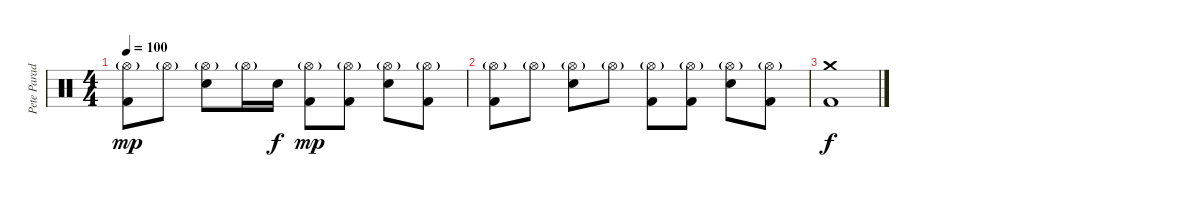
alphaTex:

\track ("Pete Parada - Drums" "Pete Parad") {instrument percussion}
\staff {score}
\articulation defaults
\ts (4 4)
\tempo 100
\clef neutral
\ks c
("Hi-Hat (open)"{g} "Kick (hit) 2").8{dy mp} "Hi-Hat (open)"{g}.8 ("Hi-Hat (open)"{g} "Electric Snare (hit)").8 "Hi-Hat (open)"{g}.16 "Electric Snare (hit)".16{dy f} ("Hi-Hat (open)"{g} "Kick (hit) 2").8{dy mp} ("Hi-Hat (open)"{g} "Kick (hit) 2").8 ("Hi-Hat (open)"{g} "Electric Snare (hit)").8 ("Hi-Hat (open)"{g} "Kick (hit) 2").8 |
("Hi-Hat (open)"{g} "Kick (hit) 2").8 "Hi-Hat (open)"{g}.8 ("Hi-Hat (open)"{g} "Electric Snare (hit)").8 "Hi-Hat (open)"{g}.8 ("Hi-Hat (open)"{g} "Kick (hit) 2").8 ("Hi-Hat (open)"{g} "Kick (hit) 2").8 ("Hi-Hat (open)"{g} "Electric Snare (hit)").8 ("Hi-Hat (open)"{g} "Kick (hit) 2").8 |
("Crash medium (hit)" "Kick (hit) 2").1{dy f}
